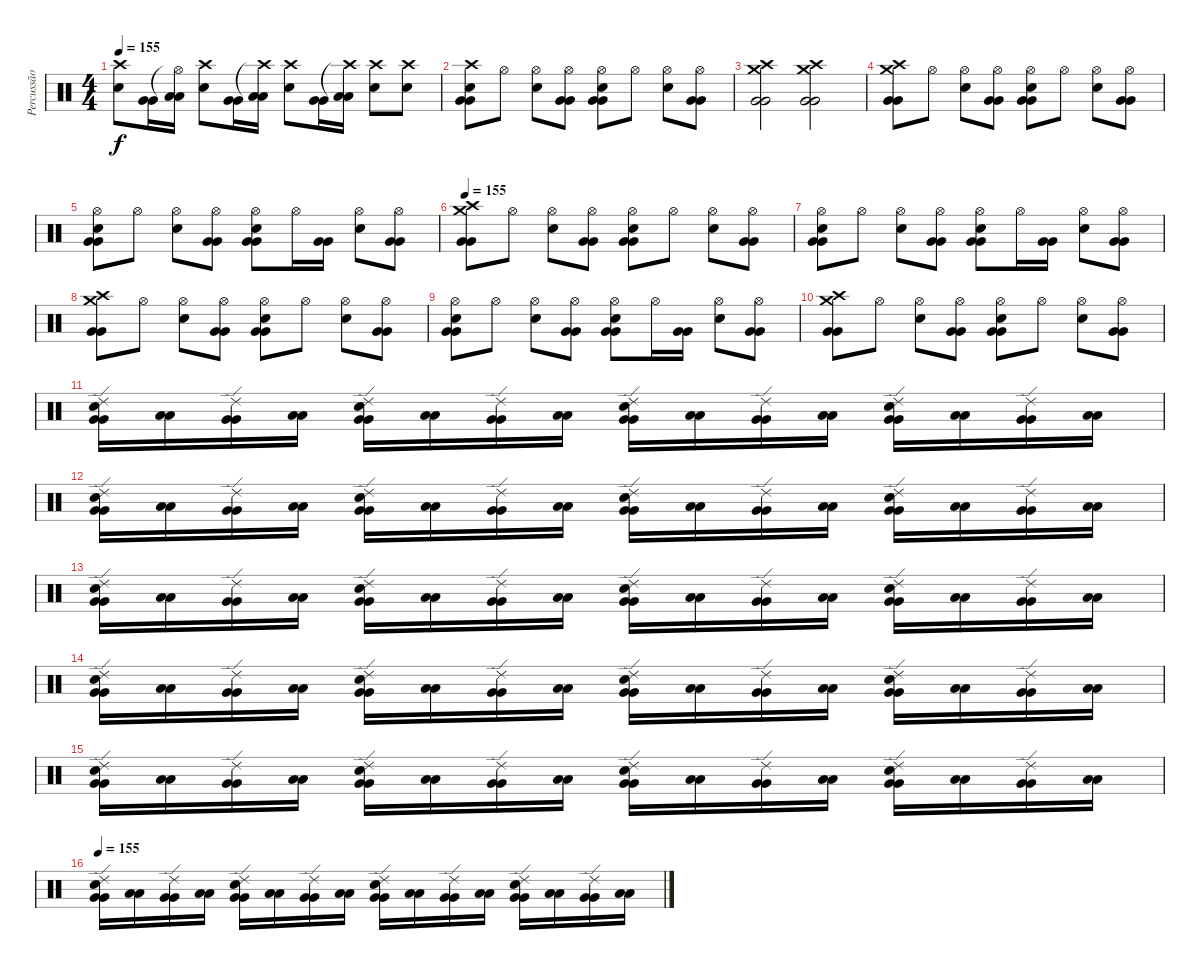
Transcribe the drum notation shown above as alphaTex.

\track ("Percussão" "Percussão") {instrument percussion}
\staff {score}
\articulation defaults
\ts (4 4)
\tempo 155
\clef neutral
\ks c
("Crash high (hit)" "Electric Snare (hit)").8{dy f} ("Very Low Tom (hit)" "Very Low Tom (hit)").16 ("Hi-Hat (open)"{t} "Low Floor Tom (hit)" "Low Floor Tom (hit)").16 ("Crash high (hit)" "Electric Snare (hit)").8 ("Very Low Tom (hit)" "Very Low Tom (hit)").16 ("Crash high (hit)"{t} "Low Floor Tom (hit)" "Low Floor Tom (hit)").16 ("Crash high (hit)" "Electric Snare (hit)").8 ("Very Low Tom (hit)" "Very Low Tom (hit)").16 ("Crash high (hit)"{t} "Low Floor Tom (hit)" "Low Floor Tom (hit)").16 ("Crash high (hit)" "Electric Snare (hit)").8 ("Crash high (hit)" "Electric Snare (hit)").8 |
("Crash high (hit)" "Electric Snare (hit)" "Very Low Tom (hit)" "Very Low Tom (hit)").8 "Hi-Hat (open)".8 ("Hi-Hat (open)" "Electric Snare (hit)").8 ("Hi-Hat (open)" "Very Low Tom (hit)" "Very Low Tom (hit)").8 ("Hi-Hat (open)" "Electric Snare (hit)" "Very Low Tom (hit)" "Very Low Tom (hit)").8 "Hi-Hat (open)".8 ("Hi-Hat (open)" "Electric Snare (hit)").8 ("Hi-Hat (open)" "Very Low Tom (hit)" "Very Low Tom (hit)").8 |
("Crash high (hit)" "Crash medium (hit)" "Very Low Tom (hit)" "Very Low Tom (hit)").2 ("Crash high (hit)" "Crash medium (hit)" "Very Low Tom (hit)" "Very Low Tom (hit)").2 |
("Crash high (hit)" "Crash medium (hit)" "Very Low Tom (hit)" "Very Low Tom (hit)").8 "Hi-Hat (open)".8 ("Hi-Hat (open)" "Electric Snare (hit)").8 ("Hi-Hat (open)" "Very Low Tom (hit)" "Very Low Tom (hit)").8 ("Hi-Hat (open)" "Electric Snare (hit)" "Very Low Tom (hit)" "Very Low Tom (hit)").8 "Hi-Hat (open)".8 ("Hi-Hat (open)" "Electric Snare (hit)").8 ("Hi-Hat (open)" "Very Low Tom (hit)" "Very Low Tom (hit)").8 |
("Hi-Hat (open)" "Electric Snare (hit)" "Very Low Tom (hit)" "Very Low Tom (hit)").8 "Hi-Hat (open)".8 ("Hi-Hat (open)" "Electric Snare (hit)").8 ("Hi-Hat (open)" "Very Low Tom (hit)" "Very Low Tom (hit)").8 ("Hi-Hat (open)" "Electric Snare (hit)" "Very Low Tom (hit)" "Very Low Tom (hit)").8 "Hi-Hat (open)".16 ("Very Low Tom (hit)" "Very Low Tom (hit)").16 ("Hi-Hat (open)" "Electric Snare (hit)").8 ("Hi-Hat (open)" "Very Low Tom (hit)" "Very Low Tom (hit)").8 |
\tempo 155
("Crash high (hit)" "Crash medium (hit)" "Very Low Tom (hit)" "Very Low Tom (hit)").8 "Hi-Hat (open)".8 ("Hi-Hat (open)" "Electric Snare (hit)").8 ("Hi-Hat (open)" "Very Low Tom (hit)" "Very Low Tom (hit)").8 ("Hi-Hat (open)" "Electric Snare (hit)" "Very Low Tom (hit)" "Very Low Tom (hit)").8 "Hi-Hat (open)".8 ("Hi-Hat (open)" "Electric Snare (hit)").8 ("Hi-Hat (open)" "Very Low Tom (hit)" "Very Low Tom (hit)").8 |
("Hi-Hat (open)" "Electric Snare (hit)" "Very Low Tom (hit)" "Very Low Tom (hit)").8 "Hi-Hat (open)".8 ("Hi-Hat (open)" "Electric Snare (hit)").8 ("Hi-Hat (open)" "Very Low Tom (hit)" "Very Low Tom (hit)").8 ("Hi-Hat (open)" "Electric Snare (hit)" "Very Low Tom (hit)" "Very Low Tom (hit)").8 "Hi-Hat (open)".16 ("Very Low Tom (hit)" "Very Low Tom (hit)").16 ("Hi-Hat (open)" "Electric Snare (hit)").8 ("Hi-Hat (open)" "Very Low Tom (hit)" "Very Low Tom (hit)").8 |
("Crash high (hit)" "Crash medium (hit)" "Very Low Tom (hit)" "Very Low Tom (hit)").8 "Hi-Hat (open)".8 ("Hi-Hat (open)" "Electric Snare (hit)").8 ("Hi-Hat (open)" "Very Low Tom (hit)" "Very Low Tom (hit)").8 ("Hi-Hat (open)" "Electric Snare (hit)" "Very Low Tom (hit)" "Very Low Tom (hit)").8 "Hi-Hat (open)".8 ("Hi-Hat (open)" "Electric Snare (hit)").8 ("Hi-Hat (open)" "Very Low Tom (hit)" "Very Low Tom (hit)").8 |
("Hi-Hat (open)" "Electric Snare (hit)" "Very Low Tom (hit)" "Very Low Tom (hit)").8 "Hi-Hat (open)".8 ("Hi-Hat (open)" "Electric Snare (hit)").8 ("Hi-Hat (open)" "Very Low Tom (hit)" "Very Low Tom (hit)").8 ("Hi-Hat (open)" "Electric Snare (hit)" "Very Low Tom (hit)" "Very Low Tom (hit)").8 "Hi-Hat (open)".16 ("Very Low Tom (hit)" "Very Low Tom (hit)").16 ("Hi-Hat (open)" "Electric Snare (hit)").8 ("Hi-Hat (open)" "Very Low Tom (hit)" "Very Low Tom (hit)").8 |
("Crash high (hit)" "Crash medium (hit)" "Very Low Tom (hit)" "Very Low Tom (hit)").8 "Hi-Hat (open)".8 ("Hi-Hat (open)" "Electric Snare (hit)").8 ("Hi-Hat (open)" "Very Low Tom (hit)" "Very Low Tom (hit)").8 ("Hi-Hat (open)" "Electric Snare (hit)" "Very Low Tom (hit)" "Very Low Tom (hit)").8 "Hi-Hat (open)".8 ("Hi-Hat (open)" "Electric Snare (hit)").8 ("Hi-Hat (open)" "Very Low Tom (hit)" "Very Low Tom (hit)").8 |
("Electric Snare (hit)" "Ride (edge) 2" "Very Low Tom (hit)" "Very Low Tom (hit)").16 ("Low Floor Tom (hit)" "Low Floor Tom (hit)").16 ("Ride (edge) 2" "Very Low Tom (hit)" "Very Low Tom (hit)").16 ("Low Floor Tom (hit)" "Low Floor Tom (hit)").16 ("Electric Snare (hit)" "Ride (edge) 2" "Very Low Tom (hit)" "Very Low Tom (hit)").16 ("Low Floor Tom (hit)" "Low Floor Tom (hit)").16 ("Ride (edge) 2" "Very Low Tom (hit)" "Very Low Tom (hit)").16 ("Low Floor Tom (hit)" "Low Floor Tom (hit)").16 ("Electric Snare (hit)" "Ride (edge) 2" "Very Low Tom (hit)" "Very Low Tom (hit)").16 ("Low Floor Tom (hit)" "Low Floor Tom (hit)").16 ("Ride (edge) 2" "Very Low Tom (hit)" "Very Low Tom (hit)").16 ("Low Floor Tom (hit)" "Low Floor Tom (hit)").16 ("Electric Snare (hit)" "Ride (edge) 2" "Very Low Tom (hit)" "Very Low Tom (hit)").16 ("Low Floor Tom (hit)" "Low Floor Tom (hit)").16 ("Ride (edge) 2" "Very Low Tom (hit)" "Very Low Tom (hit)").16 ("Low Floor Tom (hit)" "Low Floor Tom (hit)").16 |
("Electric Snare (hit)" "Ride (edge) 2" "Very Low Tom (hit)" "Very Low Tom (hit)").16 ("Low Floor Tom (hit)" "Low Floor Tom (hit)").16 ("Ride (edge) 2" "Very Low Tom (hit)" "Very Low Tom (hit)").16 ("Low Floor Tom (hit)" "Low Floor Tom (hit)").16 ("Electric Snare (hit)" "Ride (edge) 2" "Very Low Tom (hit)" "Very Low Tom (hit)").16 ("Low Floor Tom (hit)" "Low Floor Tom (hit)").16 ("Ride (edge) 2" "Very Low Tom (hit)" "Very Low Tom (hit)").16 ("Low Floor Tom (hit)" "Low Floor Tom (hit)").16 ("Electric Snare (hit)" "Ride (edge) 2" "Very Low Tom (hit)" "Very Low Tom (hit)").16 ("Low Floor Tom (hit)" "Low Floor Tom (hit)").16 ("Ride (edge) 2" "Very Low Tom (hit)" "Very Low Tom (hit)").16 ("Low Floor Tom (hit)" "Low Floor Tom (hit)").16 ("Electric Snare (hit)" "Ride (edge) 2" "Very Low Tom (hit)" "Very Low Tom (hit)").16 ("Low Floor Tom (hit)" "Low Floor Tom (hit)").16 ("Ride (edge) 2" "Very Low Tom (hit)" "Very Low Tom (hit)").16 ("Low Floor Tom (hit)" "Low Floor Tom (hit)").16 |
("Electric Snare (hit)" "Ride (edge) 2" "Very Low Tom (hit)" "Very Low Tom (hit)").16 ("Low Floor Tom (hit)" "Low Floor Tom (hit)").16 ("Ride (edge) 2" "Very Low Tom (hit)" "Very Low Tom (hit)").16 ("Low Floor Tom (hit)" "Low Floor Tom (hit)").16 ("Electric Snare (hit)" "Ride (edge) 2" "Very Low Tom (hit)" "Very Low Tom (hit)").16 ("Low Floor Tom (hit)" "Low Floor Tom (hit)").16 ("Ride (edge) 2" "Very Low Tom (hit)" "Very Low Tom (hit)").16 ("Low Floor Tom (hit)" "Low Floor Tom (hit)").16 ("Electric Snare (hit)" "Ride (edge) 2" "Very Low Tom (hit)" "Very Low Tom (hit)").16 ("Low Floor Tom (hit)" "Low Floor Tom (hit)").16 ("Ride (edge) 2" "Very Low Tom (hit)" "Very Low Tom (hit)").16 ("Low Floor Tom (hit)" "Low Floor Tom (hit)").16 ("Electric Snare (hit)" "Ride (edge) 2" "Very Low Tom (hit)" "Very Low Tom (hit)").16 ("Low Floor Tom (hit)" "Low Floor Tom (hit)").16 ("Ride (edge) 2" "Very Low Tom (hit)" "Very Low Tom (hit)").16 ("Low Floor Tom (hit)" "Low Floor Tom (hit)").16 |
("Electric Snare (hit)" "Ride (edge) 2" "Very Low Tom (hit)" "Very Low Tom (hit)").16 ("Low Floor Tom (hit)" "Low Floor Tom (hit)").16 ("Ride (edge) 2" "Very Low Tom (hit)" "Very Low Tom (hit)").16 ("Low Floor Tom (hit)" "Low Floor Tom (hit)").16 ("Electric Snare (hit)" "Ride (edge) 2" "Very Low Tom (hit)" "Very Low Tom (hit)").16 ("Low Floor Tom (hit)" "Low Floor Tom (hit)").16 ("Ride (edge) 2" "Very Low Tom (hit)" "Very Low Tom (hit)").16 ("Low Floor Tom (hit)" "Low Floor Tom (hit)").16 ("Electric Snare (hit)" "Ride (edge) 2" "Very Low Tom (hit)" "Very Low Tom (hit)").16 ("Low Floor Tom (hit)" "Low Floor Tom (hit)").16 ("Ride (edge) 2" "Very Low Tom (hit)" "Very Low Tom (hit)").16 ("Low Floor Tom (hit)" "Low Floor Tom (hit)").16 ("Electric Snare (hit)" "Ride (edge) 2" "Very Low Tom (hit)" "Very Low Tom (hit)").16 ("Low Floor Tom (hit)" "Low Floor Tom (hit)").16 ("Ride (edge) 2" "Very Low Tom (hit)" "Very Low Tom (hit)").16 ("Low Floor Tom (hit)" "Low Floor Tom (hit)").16 |
("Electric Snare (hit)" "Ride (edge) 2" "Very Low Tom (hit)" "Very Low Tom (hit)").16 ("Low Floor Tom (hit)" "Low Floor Tom (hit)").16 ("Ride (edge) 2" "Very Low Tom (hit)" "Very Low Tom (hit)").16 ("Low Floor Tom (hit)" "Low Floor Tom (hit)").16 ("Electric Snare (hit)" "Ride (edge) 2" "Very Low Tom (hit)" "Very Low Tom (hit)").16 ("Low Floor Tom (hit)" "Low Floor Tom (hit)").16 ("Ride (edge) 2" "Very Low Tom (hit)" "Very Low Tom (hit)").16 ("Low Floor Tom (hit)" "Low Floor Tom (hit)").16 ("Electric Snare (hit)" "Ride (edge) 2" "Very Low Tom (hit)" "Very Low Tom (hit)").16 ("Low Floor Tom (hit)" "Low Floor Tom (hit)").16 ("Ride (edge) 2" "Very Low Tom (hit)" "Very Low Tom (hit)").16 ("Low Floor Tom (hit)" "Low Floor Tom (hit)").16 ("Electric Snare (hit)" "Ride (edge) 2" "Very Low Tom (hit)" "Very Low Tom (hit)").16 ("Low Floor Tom (hit)" "Low Floor Tom (hit)").16 ("Ride (edge) 2" "Very Low Tom (hit)" "Very Low Tom (hit)").16 ("Low Floor Tom (hit)" "Low Floor Tom (hit)").16 |
\tempo 155
("Electric Snare (hit)" "Ride (edge) 2" "Very Low Tom (hit)" "Very Low Tom (hit)").16 ("Low Floor Tom (hit)" "Low Floor Tom (hit)").16 ("Ride (edge) 2" "Very Low Tom (hit)" "Very Low Tom (hit)").16 ("Low Floor Tom (hit)" "Low Floor Tom (hit)").16 ("Electric Snare (hit)" "Ride (edge) 2" "Very Low Tom (hit)" "Very Low Tom (hit)").16 ("Low Floor Tom (hit)" "Low Floor Tom (hit)").16 ("Ride (edge) 2" "Very Low Tom (hit)" "Very Low Tom (hit)").16 ("Low Floor Tom (hit)" "Low Floor Tom (hit)").16 ("Electric Snare (hit)" "Ride (edge) 2" "Very Low Tom (hit)" "Very Low Tom (hit)").16 ("Low Floor Tom (hit)" "Low Floor Tom (hit)").16 ("Ride (edge) 2" "Very Low Tom (hit)" "Very Low Tom (hit)").16 ("Low Floor Tom (hit)" "Low Floor Tom (hit)").16 ("Electric Snare (hit)" "Ride (edge) 2" "Very Low Tom (hit)" "Very Low Tom (hit)").16 ("Low Floor Tom (hit)" "Low Floor Tom (hit)").16 ("Ride (edge) 2" "Very Low Tom (hit)" "Very Low Tom (hit)").16 ("Low Floor Tom (hit)" "Low Floor Tom (hit)").16
